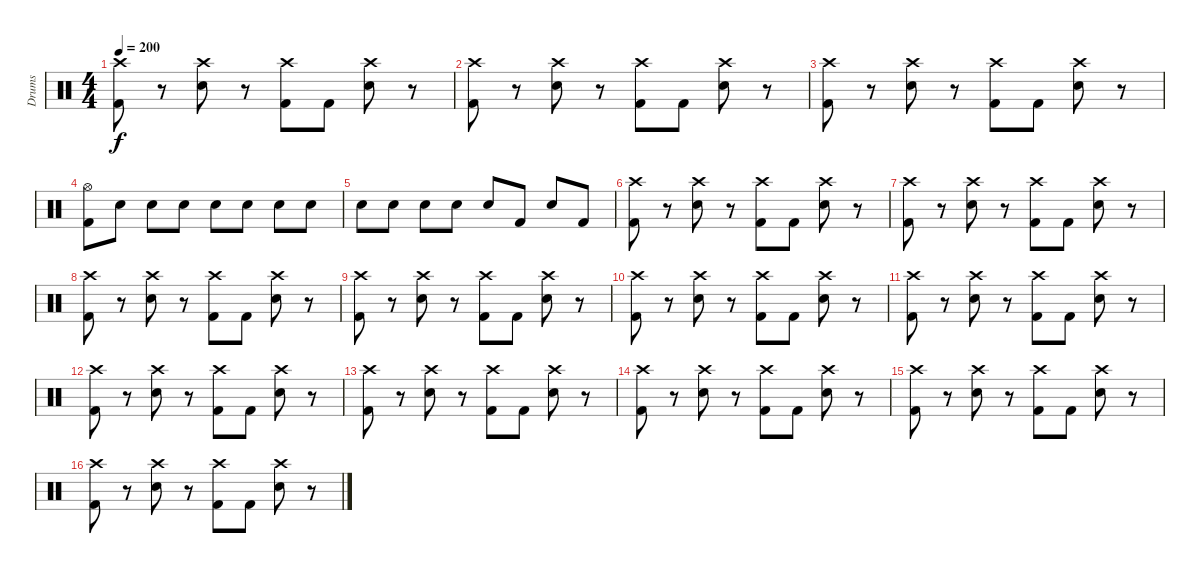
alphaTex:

\track ("Drums" "Drums") {instrument percussion}
\staff {score}
\articulation defaults
\ts (4 4)
\tempo 200
\clef neutral
\ks c
("Crash high (hit)" "Kick (hit) 2").8{dy f} r.8 ("Crash high (hit)" "Electric Snare (hit)").8 r.8 ("Crash high (hit)" "Kick (hit) 2").8 "Kick (hit) 2".8 ("Crash high (hit)" "Electric Snare (hit)").8 r.8 |
("Crash high (hit)" "Kick (hit) 2").8 r.8 ("Crash high (hit)" "Electric Snare (hit)").8 r.8 ("Crash high (hit)" "Kick (hit) 2").8 "Kick (hit) 2".8 ("Crash high (hit)" "Electric Snare (hit)").8 r.8 |
("Crash high (hit)" "Kick (hit) 2").8 r.8 ("Crash high (hit)" "Electric Snare (hit)").8 r.8 ("Crash high (hit)" "Kick (hit) 2").8 "Kick (hit) 2".8 ("Crash high (hit)" "Electric Snare (hit)").8 r.8 |
("Hi-Hat (open)" "Kick (hit) 2").8 "Electric Snare (hit)".8 "Electric Snare (hit)".8 "Electric Snare (hit)".8 "Electric Snare (hit)".8 "Electric Snare (hit)".8 "Electric Snare (hit)".8 "Electric Snare (hit)".8 |
"Electric Snare (hit)".8 "Electric Snare (hit)".8 "Electric Snare (hit)".8 "Electric Snare (hit)".8 "Electric Snare (hit)".8 "Kick (hit) 2".8 "Electric Snare (hit)".8 "Kick (hit) 2".8 |
("Crash high (hit)" "Kick (hit) 2").8 r.8 ("Crash high (hit)" "Electric Snare (hit)").8 r.8 ("Crash high (hit)" "Kick (hit) 2").8 "Kick (hit) 2".8 ("Crash high (hit)" "Electric Snare (hit)").8 r.8 |
("Crash high (hit)" "Kick (hit) 2").8 r.8 ("Crash high (hit)" "Electric Snare (hit)").8 r.8 ("Crash high (hit)" "Kick (hit) 2").8 "Kick (hit) 2".8 ("Crash high (hit)" "Electric Snare (hit)").8 r.8 |
("Crash high (hit)" "Kick (hit) 2").8 r.8 ("Crash high (hit)" "Electric Snare (hit)").8 r.8 ("Crash high (hit)" "Kick (hit) 2").8 "Kick (hit) 2".8 ("Crash high (hit)" "Electric Snare (hit)").8 r.8 |
("Crash high (hit)" "Kick (hit) 2").8 r.8 ("Crash high (hit)" "Electric Snare (hit)").8 r.8 ("Crash high (hit)" "Kick (hit) 2").8 "Kick (hit) 2".8 ("Crash high (hit)" "Electric Snare (hit)").8 r.8 |
("Crash high (hit)" "Kick (hit) 2").8 r.8 ("Crash high (hit)" "Electric Snare (hit)").8 r.8 ("Crash high (hit)" "Kick (hit) 2").8 "Kick (hit) 2".8 ("Crash high (hit)" "Electric Snare (hit)").8 r.8 |
("Crash high (hit)" "Kick (hit) 2").8 r.8 ("Crash high (hit)" "Electric Snare (hit)").8 r.8 ("Crash high (hit)" "Kick (hit) 2").8 "Kick (hit) 2".8 ("Crash high (hit)" "Electric Snare (hit)").8 r.8 |
("Crash high (hit)" "Kick (hit) 2").8 r.8 ("Crash high (hit)" "Electric Snare (hit)").8 r.8 ("Crash high (hit)" "Kick (hit) 2").8 "Kick (hit) 2".8 ("Crash high (hit)" "Electric Snare (hit)").8 r.8 |
("Crash high (hit)" "Kick (hit) 2").8 r.8 ("Crash high (hit)" "Electric Snare (hit)").8 r.8 ("Crash high (hit)" "Kick (hit) 2").8 "Kick (hit) 2".8 ("Crash high (hit)" "Electric Snare (hit)").8 r.8 |
("Crash high (hit)" "Kick (hit) 2").8 r.8 ("Crash high (hit)" "Electric Snare (hit)").8 r.8 ("Crash high (hit)" "Kick (hit) 2").8 "Kick (hit) 2".8 ("Crash high (hit)" "Electric Snare (hit)").8 r.8 |
("Crash high (hit)" "Kick (hit) 2").8 r.8 ("Crash high (hit)" "Electric Snare (hit)").8 r.8 ("Crash high (hit)" "Kick (hit) 2").8 "Kick (hit) 2".8 ("Crash high (hit)" "Electric Snare (hit)").8 r.8 |
("Crash high (hit)" "Kick (hit) 2").8 r.8 ("Crash high (hit)" "Electric Snare (hit)").8 r.8 ("Crash high (hit)" "Kick (hit) 2").8 "Kick (hit) 2".8 ("Crash high (hit)" "Electric Snare (hit)").8 r.8
